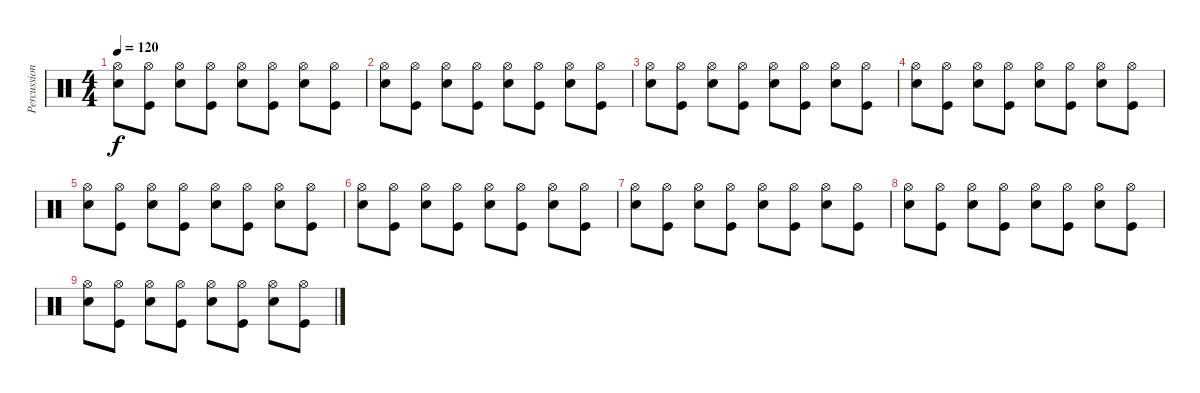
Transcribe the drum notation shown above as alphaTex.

\track ("Percussion" "Percussion") {instrument percussion}
\staff {score}
\articulation defaults
\ts (4 4)
\tempo 120
\clef neutral
\ks c
("Hi-Hat (open)" "Snare (hit) 2").8{dy f} ("Hi-Hat (open)" "Kick (hit)").8 ("Hi-Hat (open)" "Snare (hit) 2").8 ("Hi-Hat (open)" "Kick (hit)").8 ("Hi-Hat (open)" "Snare (hit) 2").8 ("Hi-Hat (open)" "Kick (hit)").8 ("Hi-Hat (open)" "Snare (hit) 2").8 ("Hi-Hat (open)" "Kick (hit)").8 |
("Hi-Hat (open)" "Snare (hit) 2").8 ("Hi-Hat (open)" "Kick (hit)").8 ("Hi-Hat (open)" "Snare (hit) 2").8 ("Hi-Hat (open)" "Kick (hit)").8 ("Hi-Hat (open)" "Snare (hit) 2").8 ("Hi-Hat (open)" "Kick (hit)").8 ("Hi-Hat (open)" "Snare (hit) 2").8 ("Hi-Hat (open)" "Kick (hit)").8 |
("Hi-Hat (open)" "Snare (hit) 2").8 ("Hi-Hat (open)" "Kick (hit)").8 ("Hi-Hat (open)" "Snare (hit) 2").8 ("Hi-Hat (open)" "Kick (hit)").8 ("Hi-Hat (open)" "Snare (hit) 2").8 ("Hi-Hat (open)" "Kick (hit)").8 ("Hi-Hat (open)" "Snare (hit) 2").8 ("Hi-Hat (open)" "Kick (hit)").8 |
("Hi-Hat (open)" "Snare (hit) 2").8 ("Hi-Hat (open)" "Kick (hit)").8 ("Hi-Hat (open)" "Snare (hit) 2").8 ("Hi-Hat (open)" "Kick (hit)").8 ("Hi-Hat (open)" "Snare (hit) 2").8 ("Hi-Hat (open)" "Kick (hit)").8 ("Hi-Hat (open)" "Snare (hit) 2").8 ("Hi-Hat (open)" "Kick (hit)").8 |
("Hi-Hat (open)" "Snare (hit) 2").8 ("Hi-Hat (open)" "Kick (hit)").8 ("Hi-Hat (open)" "Snare (hit) 2").8 ("Hi-Hat (open)" "Kick (hit)").8 ("Hi-Hat (open)" "Snare (hit) 2").8 ("Hi-Hat (open)" "Kick (hit)").8 ("Hi-Hat (open)" "Snare (hit) 2").8 ("Hi-Hat (open)" "Kick (hit)").8 |
("Hi-Hat (open)" "Snare (hit) 2").8 ("Hi-Hat (open)" "Kick (hit)").8 ("Hi-Hat (open)" "Snare (hit) 2").8 ("Hi-Hat (open)" "Kick (hit)").8 ("Hi-Hat (open)" "Snare (hit) 2").8 ("Hi-Hat (open)" "Kick (hit)").8 ("Hi-Hat (open)" "Snare (hit) 2").8 ("Hi-Hat (open)" "Kick (hit)").8 |
("Hi-Hat (open)" "Snare (hit) 2").8 ("Hi-Hat (open)" "Kick (hit)").8 ("Hi-Hat (open)" "Snare (hit) 2").8 ("Hi-Hat (open)" "Kick (hit)").8 ("Hi-Hat (open)" "Snare (hit) 2").8 ("Hi-Hat (open)" "Kick (hit)").8 ("Hi-Hat (open)" "Snare (hit) 2").8 ("Hi-Hat (open)" "Kick (hit)").8 |
("Hi-Hat (open)" "Snare (hit) 2").8 ("Hi-Hat (open)" "Kick (hit)").8 ("Hi-Hat (open)" "Snare (hit) 2").8 ("Hi-Hat (open)" "Kick (hit)").8 ("Hi-Hat (open)" "Snare (hit) 2").8 ("Hi-Hat (open)" "Kick (hit)").8 ("Hi-Hat (open)" "Snare (hit) 2").8 ("Hi-Hat (open)" "Kick (hit)").8 |
("Hi-Hat (open)" "Snare (hit) 2").8 ("Hi-Hat (open)" "Kick (hit)").8 ("Hi-Hat (open)" "Snare (hit) 2").8 ("Hi-Hat (open)" "Kick (hit)").8 ("Hi-Hat (open)" "Snare (hit) 2").8 ("Hi-Hat (open)" "Kick (hit)").8 ("Hi-Hat (open)" "Snare (hit) 2").8 ("Hi-Hat (open)" "Kick (hit)").8
